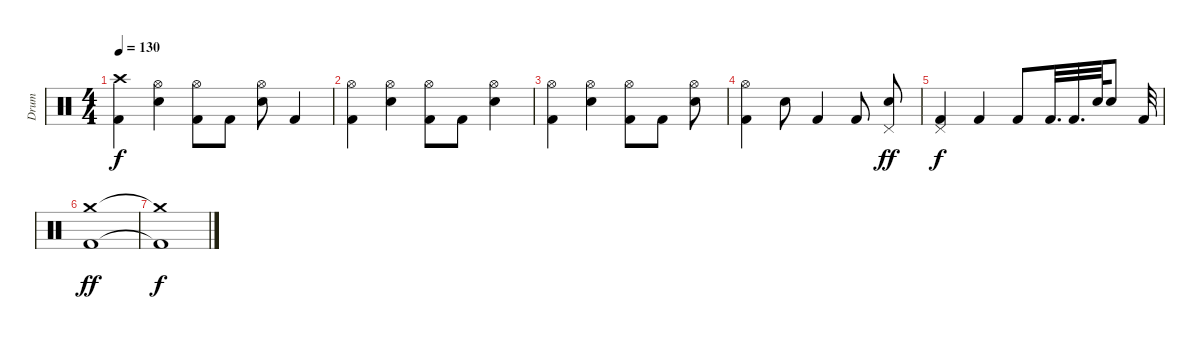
\track ("Drum" "Drum") {instrument percussion}
\staff {score}
\articulation defaults
\ts (4 4)
\tempo 130
\clef neutral
\ks c
("Crash high (hit)" "Kick (hit) 2").4{dy f} ("Hi-Hat (open)" "Electric Snare (hit)").4 ("Hi-Hat (open)" "Kick (hit) 2").8 "Kick (hit) 2".8 ("Hi-Hat (open)" "Electric Snare (hit)").8 "Kick (hit) 2".4 |
("Hi-Hat (open)" "Kick (hit) 2").4 ("Hi-Hat (open)" "Electric Snare (hit)").4 ("Hi-Hat (open)" "Kick (hit) 2").8 "Kick (hit) 2".8 ("Hi-Hat (open)" "Electric Snare (hit)").4 |
("Hi-Hat (open)" "Kick (hit) 2").4 ("Hi-Hat (open)" "Electric Snare (hit)").4 ("Hi-Hat (open)" "Kick (hit) 2").8 "Kick (hit) 2".8 ("Hi-Hat (open)" "Electric Snare (hit)").8 |
("Hi-Hat (open)" "Kick (hit) 2").4 "Electric Snare (hit)".8 "Kick (hit) 2".4 "Kick (hit) 2".8 ("Pedal Hi-Hat (hit)" "Electric Snare (hit)").8{dy ff} |
("Pedal Hi-Hat (hit)" "Kick (hit) 2").4{dy f} "Kick (hit) 2".4 "Kick (hit) 2".8 "Kick (hit) 2".32{d} "Kick (hit) 2".32{d} "Electric Snare (hit)".64 "Electric Snare (hit)".8 "Kick (hit) 2".32 |
("Crash medium (hit)" "Kick (hit) 2").1{dy ff} |
("Crash medium (hit)"{t} "Kick (hit) 2"{t}).1{dy f}
